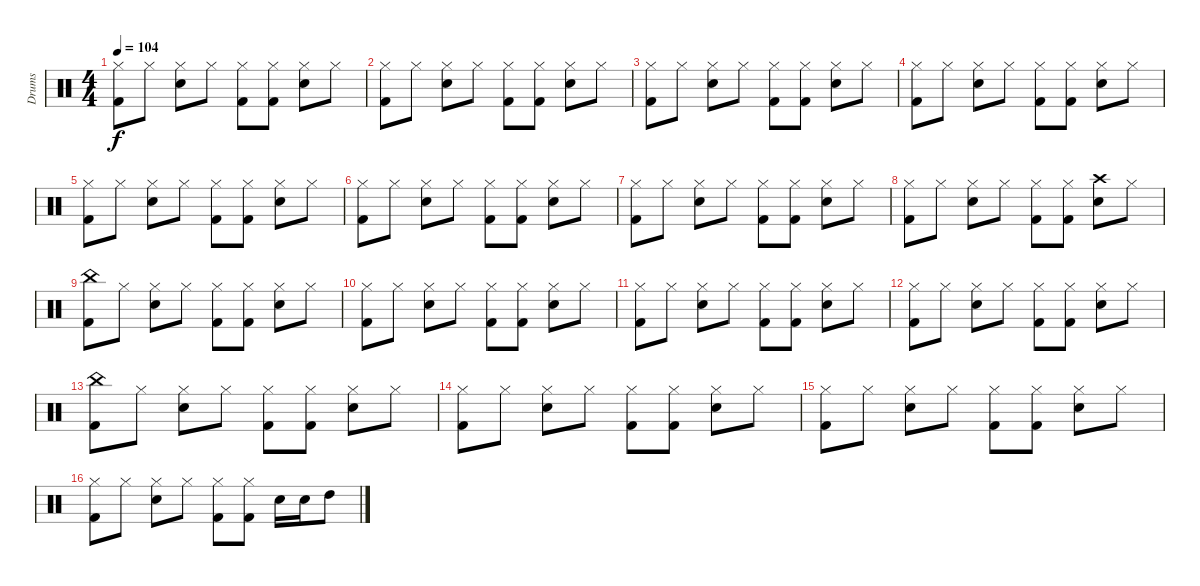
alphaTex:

\track ("Drums" "Drums") {instrument percussion}
\staff {score}
\articulation defaults
\ts (4 4)
\tempo 104
\clef neutral
\ks c
("Kick (hit) 2" "Hi-Hat (closed)").8{dy f} "Hi-Hat (closed)".8 ("Snare (hit) 2" "Hi-Hat (closed)").8 "Hi-Hat (closed)".8 ("Kick (hit) 2" "Hi-Hat (closed)").8 ("Kick (hit) 2" "Hi-Hat (closed)").8 ("Snare (hit) 2" "Hi-Hat (closed)").8 "Hi-Hat (closed)".8 |
("Kick (hit) 2" "Hi-Hat (closed)").8 "Hi-Hat (closed)".8 ("Snare (hit) 2" "Hi-Hat (closed)").8 "Hi-Hat (closed)".8 ("Kick (hit) 2" "Hi-Hat (closed)").8 ("Kick (hit) 2" "Hi-Hat (closed)").8 ("Snare (hit) 2" "Hi-Hat (closed)").8 "Hi-Hat (closed)".8 |
("Kick (hit) 2" "Hi-Hat (closed)").8 "Hi-Hat (closed)".8 ("Snare (hit) 2" "Hi-Hat (closed)").8 "Hi-Hat (closed)".8 ("Kick (hit) 2" "Hi-Hat (closed)").8 ("Kick (hit) 2" "Hi-Hat (closed)").8 ("Snare (hit) 2" "Hi-Hat (closed)").8 "Hi-Hat (closed)".8 |
("Kick (hit) 2" "Hi-Hat (closed)").8 "Hi-Hat (closed)".8 ("Snare (hit) 2" "Hi-Hat (closed)").8 "Hi-Hat (closed)".8 ("Kick (hit) 2" "Hi-Hat (closed)").8 ("Kick (hit) 2" "Hi-Hat (closed)").8 ("Snare (hit) 2" "Hi-Hat (closed)").8 "Hi-Hat (closed)".8 |
("Kick (hit) 2" "Hi-Hat (closed)").8 "Hi-Hat (closed)".8 ("Snare (hit) 2" "Hi-Hat (closed)").8 "Hi-Hat (closed)".8 ("Kick (hit) 2" "Hi-Hat (closed)").8 ("Kick (hit) 2" "Hi-Hat (closed)").8 ("Snare (hit) 2" "Hi-Hat (closed)").8 "Hi-Hat (closed)".8 |
("Kick (hit) 2" "Hi-Hat (closed)").8 "Hi-Hat (closed)".8 ("Snare (hit) 2" "Hi-Hat (closed)").8 "Hi-Hat (closed)".8 ("Kick (hit) 2" "Hi-Hat (closed)").8 ("Kick (hit) 2" "Hi-Hat (closed)").8 ("Snare (hit) 2" "Hi-Hat (closed)").8 "Hi-Hat (closed)".8 |
("Kick (hit) 2" "Hi-Hat (closed)").8 "Hi-Hat (closed)".8 ("Snare (hit) 2" "Hi-Hat (closed)").8 "Hi-Hat (closed)".8 ("Kick (hit) 2" "Hi-Hat (closed)").8 ("Kick (hit) 2" "Hi-Hat (closed)").8 ("Snare (hit) 2" "Hi-Hat (closed)").8 "Hi-Hat (closed)".8 |
("Kick (hit) 2" "Hi-Hat (closed)").8 "Hi-Hat (closed)".8 ("Snare (hit) 2" "Hi-Hat (closed)").8 "Hi-Hat (closed)".8 ("Kick (hit) 2" "Hi-Hat (closed)").8 ("Kick (hit) 2" "Hi-Hat (closed)").8 ("Snare (hit) 2" "Crash high (hit)").8 "Hi-Hat (closed)".8 |
("Kick (hit) 2" "China (hit)").8 "Hi-Hat (closed)".8 ("Snare (hit) 2" "Hi-Hat (closed)").8 "Hi-Hat (closed)".8 ("Kick (hit) 2" "Hi-Hat (closed)").8 ("Kick (hit) 2" "Hi-Hat (closed)").8 ("Snare (hit) 2" "Hi-Hat (closed)").8 "Hi-Hat (closed)".8 |
("Kick (hit) 2" "Hi-Hat (closed)").8 "Hi-Hat (closed)".8 ("Snare (hit) 2" "Hi-Hat (closed)").8 "Hi-Hat (closed)".8 ("Kick (hit) 2" "Hi-Hat (closed)").8 ("Kick (hit) 2" "Hi-Hat (closed)").8 ("Snare (hit) 2" "Hi-Hat (closed)").8 "Hi-Hat (closed)".8 |
("Kick (hit) 2" "Hi-Hat (closed)").8 "Hi-Hat (closed)".8 ("Snare (hit) 2" "Hi-Hat (closed)").8 "Hi-Hat (closed)".8 ("Kick (hit) 2" "Hi-Hat (closed)").8 ("Kick (hit) 2" "Hi-Hat (closed)").8 ("Snare (hit) 2" "Hi-Hat (closed)").8 "Hi-Hat (closed)".8 |
("Kick (hit) 2" "Hi-Hat (closed)").8 "Hi-Hat (closed)".8 ("Snare (hit) 2" "Hi-Hat (closed)").8 "Hi-Hat (closed)".8 ("Kick (hit) 2" "Hi-Hat (closed)").8 ("Kick (hit) 2" "Hi-Hat (closed)").8 ("Snare (hit) 2" "Hi-Hat (closed)").8 "Hi-Hat (closed)".8 |
("Kick (hit) 2" "China (hit)").8 "Hi-Hat (closed)".8 ("Snare (hit) 2" "Hi-Hat (closed)").8 "Hi-Hat (closed)".8 ("Kick (hit) 2" "Hi-Hat (closed)").8 ("Kick (hit) 2" "Hi-Hat (closed)").8 ("Snare (hit) 2" "Hi-Hat (closed)").8 "Hi-Hat (closed)".8 |
("Kick (hit) 2" "Hi-Hat (closed)").8 "Hi-Hat (closed)".8 ("Snare (hit) 2" "Hi-Hat (closed)").8 "Hi-Hat (closed)".8 ("Kick (hit) 2" "Hi-Hat (closed)").8 ("Kick (hit) 2" "Hi-Hat (closed)").8 ("Snare (hit) 2" "Hi-Hat (closed)").8 "Hi-Hat (closed)".8 |
("Kick (hit) 2" "Hi-Hat (closed)").8 "Hi-Hat (closed)".8 ("Snare (hit) 2" "Hi-Hat (closed)").8 "Hi-Hat (closed)".8 ("Kick (hit) 2" "Hi-Hat (closed)").8 ("Kick (hit) 2" "Hi-Hat (closed)").8 ("Snare (hit) 2" "Hi-Hat (closed)").8 "Hi-Hat (closed)".8 |
("Kick (hit) 2" "Hi-Hat (closed)").8 "Hi-Hat (closed)".8 ("Snare (hit) 2" "Hi-Hat (closed)").8 "Hi-Hat (closed)".8 ("Kick (hit) 2" "Hi-Hat (closed)").8 ("Kick (hit) 2" "Hi-Hat (closed)").8 "Snare (hit) 2".16 "Snare (hit) 2".16 "High Tom (hit)".8
